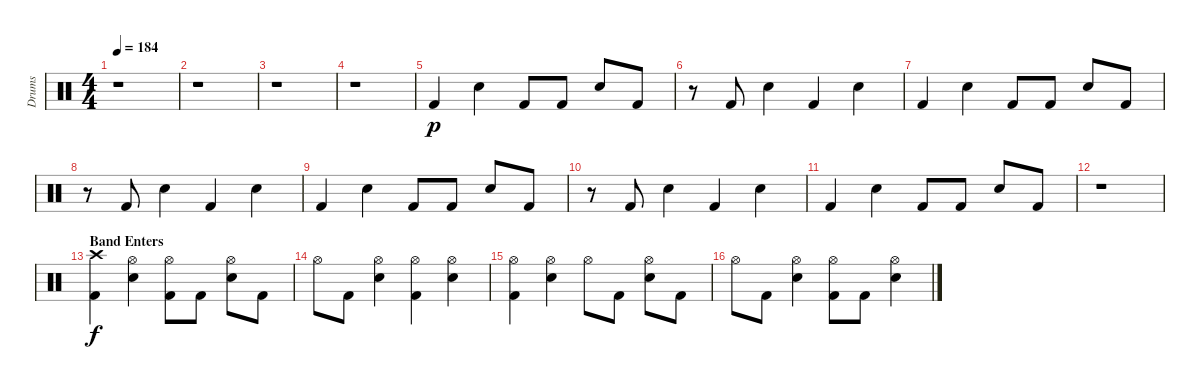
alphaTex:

\track ("Drums" "Drums") {instrument percussion}
\staff {score}
\articulation defaults
\ts (4 4)
\tempo 184
\clef neutral
\ks c
r.1{dy f} |
r.1 |
r.1 |
r.1 |
"Kick (hit) 2".4{dy p} "Snare (hit) 2".4 "Kick (hit) 2".8 "Kick (hit) 2".8 "Snare (hit) 2".8 "Kick (hit) 2".8 |
r.8 "Kick (hit) 2".8 "Snare (hit) 2".4 "Kick (hit) 2".4 "Snare (hit) 2".4 |
"Kick (hit) 2".4 "Snare (hit) 2".4 "Kick (hit) 2".8 "Kick (hit) 2".8 "Snare (hit) 2".8 "Kick (hit) 2".8 |
r.8 "Kick (hit) 2".8 "Snare (hit) 2".4 "Kick (hit) 2".4 "Snare (hit) 2".4 |
"Kick (hit) 2".4 "Snare (hit) 2".4 "Kick (hit) 2".8 "Kick (hit) 2".8 "Snare (hit) 2".8 "Kick (hit) 2".8 |
r.8 "Kick (hit) 2".8 "Snare (hit) 2".4 "Kick (hit) 2".4 "Snare (hit) 2".4 |
"Kick (hit) 2".4 "Snare (hit) 2".4 "Kick (hit) 2".8 "Kick (hit) 2".8 "Snare (hit) 2".8 "Kick (hit) 2".8 |
r.1 |
\section ("" "Band Enters")
("Crash high (hit)" "Kick (hit) 2").4{dy f} ("Hi-Hat (open)" "Snare (hit) 2").4 ("Hi-Hat (open)" "Kick (hit) 2").8 "Kick (hit) 2".8 ("Hi-Hat (open)" "Snare (hit) 2").8 "Kick (hit) 2".8 |
"Hi-Hat (open)".8 "Kick (hit) 2".8 ("Hi-Hat (open)" "Snare (hit) 2").4 ("Hi-Hat (open)" "Kick (hit) 2").4 ("Hi-Hat (open)" "Snare (hit) 2").4 |
("Hi-Hat (open)" "Kick (hit) 2").4 ("Hi-Hat (open)" "Snare (hit) 2").4 "Hi-Hat (open)".8 "Kick (hit) 2".8 ("Hi-Hat (open)" "Snare (hit) 2").8 "Kick (hit) 2".8 |
"Hi-Hat (open)".8 "Kick (hit) 2".8 ("Hi-Hat (open)" "Snare (hit) 2").4 ("Hi-Hat (open)" "Kick (hit) 2").8 "Kick (hit) 2".8 ("Hi-Hat (open)" "Snare (hit) 2").4
